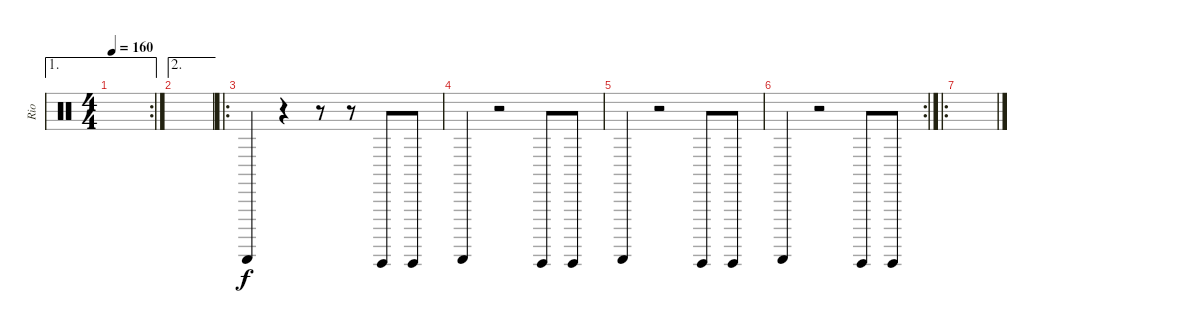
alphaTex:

\track ("Rio" "Rio") {instrument percussion}
\staff {score}
\articulation defaults
\ae 1
\rc 2
\ts (4 4)
\tempo 160
\clef neutral
\ks c
|
\ae 2
|
\ro "Guiro (scrap-return)".4
r.4 r.8 r.8 "Guiro (hit)".8 "Guiro (hit)".8 |
"Guiro (scrap-return)".4 r.2 "Guiro (hit)".8 "Guiro (hit)".8 |
"Guiro (scrap-return)".4 r.2 "Guiro (hit)".8 "Guiro (hit)".8 |
\rc 2 "Guiro (scrap-return)".4
r.2 "Guiro (hit)".8 "Guiro (hit)".8 |
\ro
